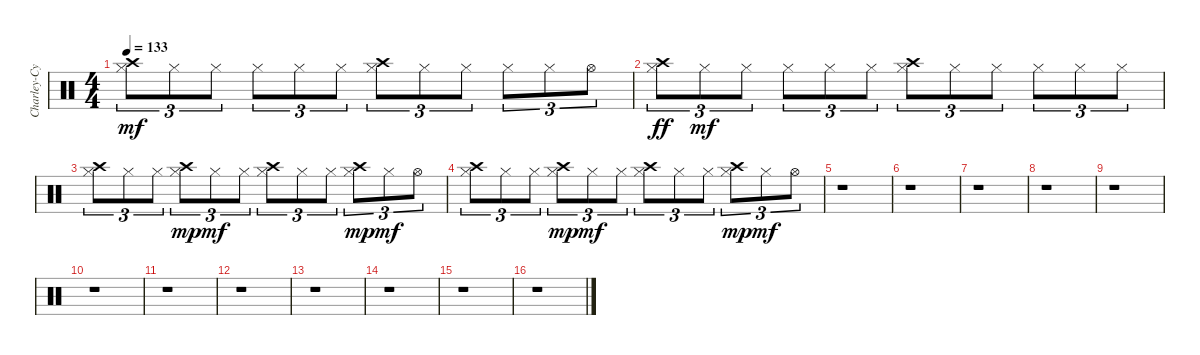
\track ("Charley-Cymbales" "Charley-Cy") {instrument percussion}
\staff {score}
\articulation defaults
\ts (4 4)
\tempo 133
\clef neutral
\ks c
("Crash high (hit)" "Hi-Hat (closed)").8{tu (3 2) dy mf} "Hi-Hat (closed)".8{tu (3 2)} "Hi-Hat (closed)".8{tu (3 2)} "Hi-Hat (closed)".8{tu (3 2)} "Hi-Hat (closed)".8{tu (3 2)} "Hi-Hat (closed)".8{tu (3 2)} ("Crash high (hit)" "Hi-Hat (closed)").8{tu (3 2)} "Hi-Hat (closed)".8{tu (3 2)} "Hi-Hat (closed)".8{tu (3 2)} "Hi-Hat (closed)".8{tu (3 2)} "Hi-Hat (closed)".8{tu (3 2)} "Hi-Hat (open)".8{tu (3 2)} |
("Crash high (hit)" "Hi-Hat (closed)").8{tu (3 2) dy ff} "Hi-Hat (closed)".8{tu (3 2) dy mf} "Hi-Hat (closed)".8{tu (3 2)} "Hi-Hat (closed)".8{tu (3 2)} "Hi-Hat (closed)".8{tu (3 2)} "Hi-Hat (closed)".8{tu (3 2)} ("Crash high (hit)" "Hi-Hat (closed)").8{tu (3 2)} "Hi-Hat (closed)".8{tu (3 2)} "Hi-Hat (closed)".8{tu (3 2)} "Hi-Hat (closed)".8{tu (3 2)} "Hi-Hat (closed)".8{tu (3 2)} "Hi-Hat (closed)".8{tu (3 2)} |
("Crash high (hit)" "Hi-Hat (closed)").8{tu (3 2)} "Hi-Hat (closed)".8{tu (3 2)} "Hi-Hat (closed)".8{tu (3 2)} ("Crash high (hit)" "Hi-Hat (closed)").8{tu (3 2) dy mp} "Hi-Hat (closed)".8{tu (3 2) dy mf} "Hi-Hat (closed)".8{tu (3 2)} ("Crash high (hit)" "Hi-Hat (closed)").8{tu (3 2)} "Hi-Hat (closed)".8{tu (3 2)} "Hi-Hat (closed)".8{tu (3 2)} ("Crash high (hit)" "Hi-Hat (closed)").8{tu (3 2) dy mp} "Hi-Hat (closed)".8{tu (3 2) dy mf} "Hi-Hat (open)".8{tu (3 2)} |
("Crash high (hit)" "Hi-Hat (closed)").8{tu (3 2)} "Hi-Hat (closed)".8{tu (3 2)} "Hi-Hat (closed)".8{tu (3 2)} ("Crash high (hit)" "Hi-Hat (closed)").8{tu (3 2) dy mp} "Hi-Hat (closed)".8{tu (3 2) dy mf} "Hi-Hat (closed)".8{tu (3 2)} ("Crash high (hit)" "Hi-Hat (closed)").8{tu (3 2)} "Hi-Hat (closed)".8{tu (3 2)} "Hi-Hat (closed)".8{tu (3 2)} ("Crash high (hit)" "Hi-Hat (closed)").8{tu (3 2) dy mp} "Hi-Hat (closed)".8{tu (3 2) dy mf} "Hi-Hat (open)".8{tu (3 2)} |
r.1 |
r.1 |
r.1 |
r.1 |
r.1 |
r.1 |
r.1 |
r.1 |
r.1 |
r.1 |
r.1 |
r.1
